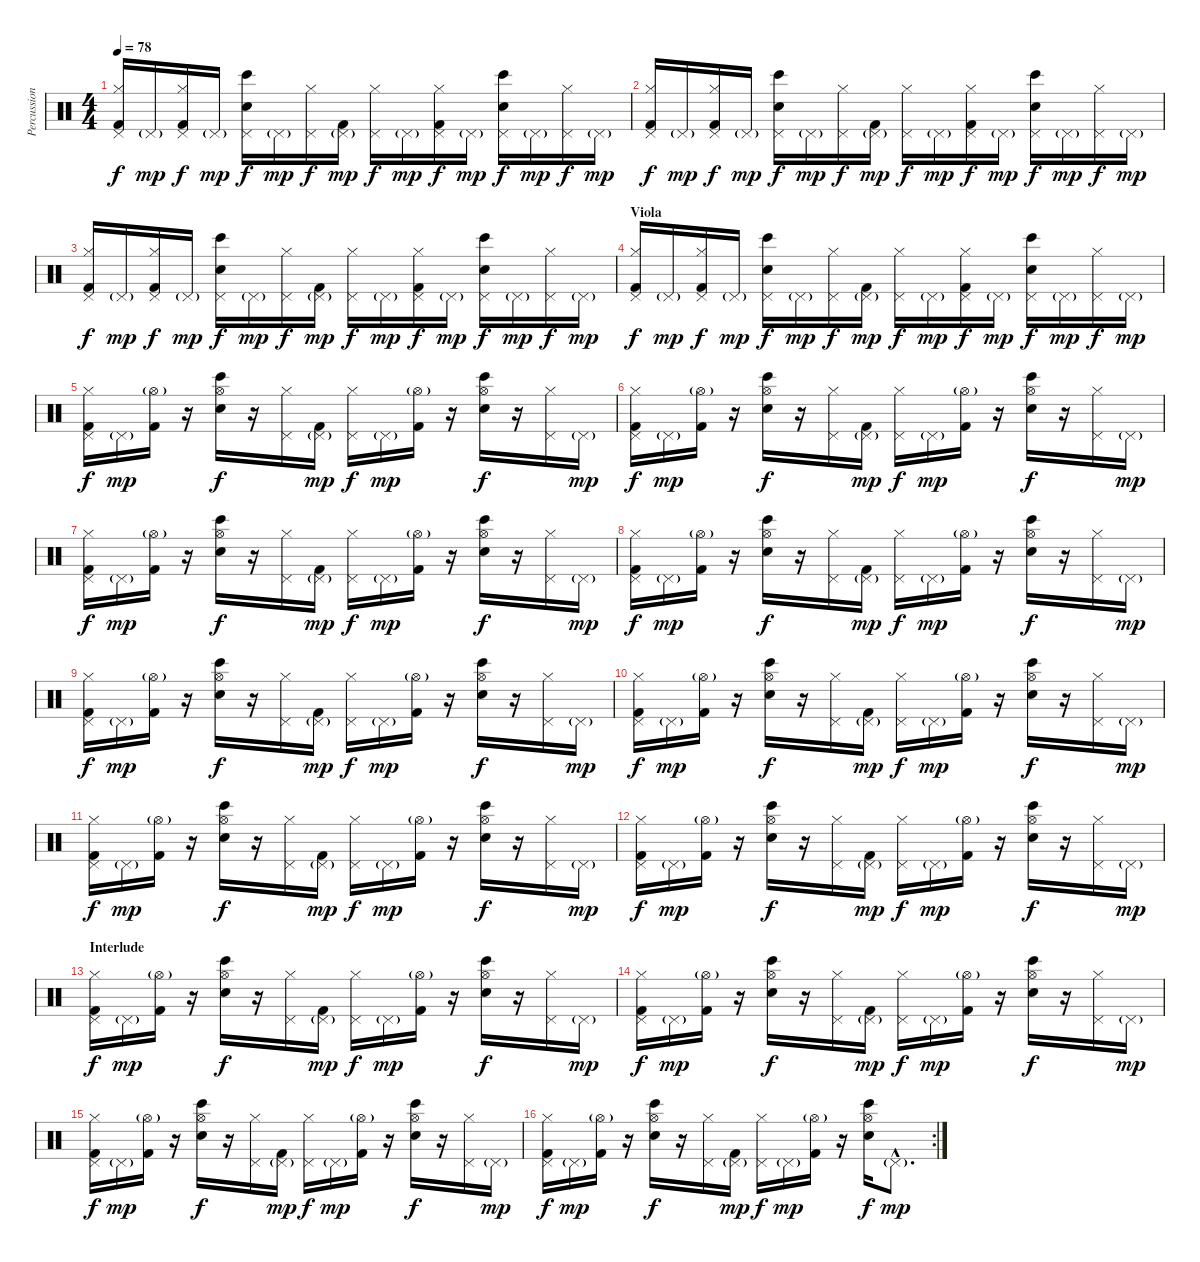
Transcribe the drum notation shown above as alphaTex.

\track ("Percussions" "Percussion") {instrument percussion}
\staff {score}
\articulation defaults
\ts (4 4)
\tempo 78
\clef neutral
\ks c
("Pedal Hi-Hat (hit)" "Hi-Hat (closed)" "Kick (hit) 2").16{dy f} "Pedal Hi-Hat (hit)"{g}.16{dy mp} ("Pedal Hi-Hat (hit)" "Hi-Hat (closed)" "Kick (hit) 2").16{dy f} "Pedal Hi-Hat (hit)"{g}.16{dy mp} ("Pedal Hi-Hat (hit)" "Bongo High (hit)" "Electric Snare (hit)").16{dy f} "Pedal Hi-Hat (hit)"{g}.16{dy mp} ("Pedal Hi-Hat (hit)" "Hi-Hat (closed)").16{dy f} ("Pedal Hi-Hat (hit)"{g} "Kick (hit) 2").16{dy mp} ("Pedal Hi-Hat (hit)" "Hi-Hat (closed)").16{dy f} "Pedal Hi-Hat (hit)"{g}.16{dy mp} ("Pedal Hi-Hat (hit)" "Hi-Hat (closed)" "Kick (hit) 2").16{dy f} "Pedal Hi-Hat (hit)"{g}.16{dy mp} ("Pedal Hi-Hat (hit)" "Bongo High (hit)" "Electric Snare (hit)").16{dy f} "Pedal Hi-Hat (hit)"{g}.16{dy mp} ("Pedal Hi-Hat (hit)" "Hi-Hat (closed)").16{dy f} "Pedal Hi-Hat (hit)"{g}.16{dy mp} |
("Pedal Hi-Hat (hit)" "Hi-Hat (closed)" "Kick (hit) 2").16{dy f} "Pedal Hi-Hat (hit)"{g}.16{dy mp} ("Pedal Hi-Hat (hit)" "Hi-Hat (closed)" "Kick (hit) 2").16{dy f} "Pedal Hi-Hat (hit)"{g}.16{dy mp} ("Pedal Hi-Hat (hit)" "Bongo High (hit)" "Electric Snare (hit)").16{dy f} "Pedal Hi-Hat (hit)"{g}.16{dy mp} ("Pedal Hi-Hat (hit)" "Hi-Hat (closed)").16{dy f} ("Pedal Hi-Hat (hit)"{g} "Kick (hit) 2").16{dy mp} ("Pedal Hi-Hat (hit)" "Hi-Hat (closed)").16{dy f} "Pedal Hi-Hat (hit)"{g}.16{dy mp} ("Pedal Hi-Hat (hit)" "Hi-Hat (closed)" "Kick (hit) 2").16{dy f} "Pedal Hi-Hat (hit)"{g}.16{dy mp} ("Pedal Hi-Hat (hit)" "Bongo High (hit)" "Electric Snare (hit)").16{dy f} "Pedal Hi-Hat (hit)"{g}.16{dy mp} ("Pedal Hi-Hat (hit)" "Hi-Hat (closed)").16{dy f} "Pedal Hi-Hat (hit)"{g}.16{dy mp} |
("Pedal Hi-Hat (hit)" "Hi-Hat (closed)" "Kick (hit) 2").16{dy f} "Pedal Hi-Hat (hit)"{g}.16{dy mp} ("Pedal Hi-Hat (hit)" "Hi-Hat (closed)" "Kick (hit) 2").16{dy f} "Pedal Hi-Hat (hit)"{g}.16{dy mp} ("Pedal Hi-Hat (hit)" "Bongo High (hit)" "Electric Snare (hit)").16{dy f} "Pedal Hi-Hat (hit)"{g}.16{dy mp} ("Pedal Hi-Hat (hit)" "Hi-Hat (closed)").16{dy f} ("Pedal Hi-Hat (hit)"{g} "Kick (hit) 2").16{dy mp} ("Pedal Hi-Hat (hit)" "Hi-Hat (closed)").16{dy f} "Pedal Hi-Hat (hit)"{g}.16{dy mp} ("Pedal Hi-Hat (hit)" "Hi-Hat (closed)" "Kick (hit) 2").16{dy f} "Pedal Hi-Hat (hit)"{g}.16{dy mp} ("Pedal Hi-Hat (hit)" "Bongo High (hit)" "Electric Snare (hit)").16{dy f} "Pedal Hi-Hat (hit)"{g}.16{dy mp} ("Pedal Hi-Hat (hit)" "Hi-Hat (closed)").16{dy f} "Pedal Hi-Hat (hit)"{g}.16{dy mp} |
\section ("" "Viola")
("Pedal Hi-Hat (hit)" "Hi-Hat (closed)" "Kick (hit) 2").16{dy f} "Pedal Hi-Hat (hit)"{g}.16{dy mp} ("Pedal Hi-Hat (hit)" "Hi-Hat (closed)" "Kick (hit) 2").16{dy f} "Pedal Hi-Hat (hit)"{g}.16{dy mp} ("Pedal Hi-Hat (hit)" "Bongo High (hit)" "Electric Snare (hit)").16{dy f} "Pedal Hi-Hat (hit)"{g}.16{dy mp} ("Pedal Hi-Hat (hit)" "Hi-Hat (closed)").16{dy f} ("Pedal Hi-Hat (hit)"{g} "Kick (hit) 2").16{dy mp} ("Pedal Hi-Hat (hit)" "Hi-Hat (closed)").16{dy f} "Pedal Hi-Hat (hit)"{g}.16{dy mp} ("Pedal Hi-Hat (hit)" "Hi-Hat (closed)" "Kick (hit) 2").16{dy f} "Pedal Hi-Hat (hit)"{g}.16{dy mp} ("Pedal Hi-Hat (hit)" "Bongo High (hit)" "Electric Snare (hit)").16{dy f} "Pedal Hi-Hat (hit)"{g}.16{dy mp} ("Pedal Hi-Hat (hit)" "Hi-Hat (closed)").16{dy f} "Pedal Hi-Hat (hit)"{g}.16{dy mp} |
("Pedal Hi-Hat (hit)" "Hi-Hat (closed)" "Kick (hit) 2").16{dy f} "Pedal Hi-Hat (hit)"{g}.16{dy mp} ("Hi-Hat (open)"{g} "Kick (hit) 2").16 r.16 ("Hi-Hat (open)" "Bongo High (hit)" "Electric Snare (hit)").16{dy f} r.16 ("Pedal Hi-Hat (hit)" "Hi-Hat (closed)").16 ("Pedal Hi-Hat (hit)"{g} "Kick (hit) 2").16{dy mp} ("Pedal Hi-Hat (hit)" "Hi-Hat (closed)").16{dy f} "Pedal Hi-Hat (hit)"{g}.16{dy mp} ("Hi-Hat (open)"{g} "Kick (hit) 2").16 r.16 ("Hi-Hat (open)" "Bongo High (hit)" "Electric Snare (hit)").16{dy f} r.16 ("Pedal Hi-Hat (hit)" "Hi-Hat (closed)").16 "Pedal Hi-Hat (hit)"{g}.16{dy mp} |
("Pedal Hi-Hat (hit)" "Hi-Hat (closed)" "Kick (hit) 2").16{dy f} "Pedal Hi-Hat (hit)"{g}.16{dy mp} ("Hi-Hat (open)"{g} "Kick (hit) 2").16 r.16 ("Hi-Hat (open)" "Bongo High (hit)" "Electric Snare (hit)").16{dy f} r.16 ("Pedal Hi-Hat (hit)" "Hi-Hat (closed)").16 ("Pedal Hi-Hat (hit)"{g} "Kick (hit) 2").16{dy mp} ("Pedal Hi-Hat (hit)" "Hi-Hat (closed)").16{dy f} "Pedal Hi-Hat (hit)"{g}.16{dy mp} ("Hi-Hat (open)"{g} "Kick (hit) 2").16 r.16 ("Hi-Hat (open)" "Bongo High (hit)" "Electric Snare (hit)").16{dy f} r.16 ("Pedal Hi-Hat (hit)" "Hi-Hat (closed)").16 "Pedal Hi-Hat (hit)"{g}.16{dy mp} |
("Pedal Hi-Hat (hit)" "Hi-Hat (closed)" "Kick (hit) 2").16{dy f} "Pedal Hi-Hat (hit)"{g}.16{dy mp} ("Hi-Hat (open)"{g} "Kick (hit) 2").16 r.16 ("Hi-Hat (open)" "Bongo High (hit)" "Electric Snare (hit)").16{dy f} r.16 ("Pedal Hi-Hat (hit)" "Hi-Hat (closed)").16 ("Pedal Hi-Hat (hit)"{g} "Kick (hit) 2").16{dy mp} ("Pedal Hi-Hat (hit)" "Hi-Hat (closed)").16{dy f} "Pedal Hi-Hat (hit)"{g}.16{dy mp} ("Hi-Hat (open)"{g} "Kick (hit) 2").16 r.16 ("Hi-Hat (open)" "Bongo High (hit)" "Electric Snare (hit)").16{dy f} r.16 ("Pedal Hi-Hat (hit)" "Hi-Hat (closed)").16 "Pedal Hi-Hat (hit)"{g}.16{dy mp} |
("Pedal Hi-Hat (hit)" "Hi-Hat (closed)" "Kick (hit) 2").16{dy f} "Pedal Hi-Hat (hit)"{g}.16{dy mp} ("Hi-Hat (open)"{g} "Kick (hit) 2").16 r.16 ("Hi-Hat (open)" "Bongo High (hit)" "Electric Snare (hit)").16{dy f} r.16 ("Pedal Hi-Hat (hit)" "Hi-Hat (closed)").16 ("Pedal Hi-Hat (hit)"{g} "Kick (hit) 2").16{dy mp} ("Pedal Hi-Hat (hit)" "Hi-Hat (closed)").16{dy f} "Pedal Hi-Hat (hit)"{g}.16{dy mp} ("Hi-Hat (open)"{g} "Kick (hit) 2").16 r.16 ("Hi-Hat (open)" "Bongo High (hit)" "Electric Snare (hit)").16{dy f} r.16 ("Pedal Hi-Hat (hit)" "Hi-Hat (closed)").16 "Pedal Hi-Hat (hit)"{g}.16{dy mp} |
("Pedal Hi-Hat (hit)" "Hi-Hat (closed)" "Kick (hit) 2").16{dy f} "Pedal Hi-Hat (hit)"{g}.16{dy mp} ("Hi-Hat (open)"{g} "Kick (hit) 2").16 r.16 ("Hi-Hat (open)" "Bongo High (hit)" "Electric Snare (hit)").16{dy f} r.16 ("Pedal Hi-Hat (hit)" "Hi-Hat (closed)").16 ("Pedal Hi-Hat (hit)"{g} "Kick (hit) 2").16{dy mp} ("Pedal Hi-Hat (hit)" "Hi-Hat (closed)").16{dy f} "Pedal Hi-Hat (hit)"{g}.16{dy mp} ("Hi-Hat (open)"{g} "Kick (hit) 2").16 r.16 ("Hi-Hat (open)" "Bongo High (hit)" "Electric Snare (hit)").16{dy f} r.16 ("Pedal Hi-Hat (hit)" "Hi-Hat (closed)").16 "Pedal Hi-Hat (hit)"{g}.16{dy mp} |
("Pedal Hi-Hat (hit)" "Hi-Hat (closed)" "Kick (hit) 2").16{dy f} "Pedal Hi-Hat (hit)"{g}.16{dy mp} ("Hi-Hat (open)"{g} "Kick (hit) 2").16 r.16 ("Hi-Hat (open)" "Bongo High (hit)" "Electric Snare (hit)").16{dy f} r.16 ("Pedal Hi-Hat (hit)" "Hi-Hat (closed)").16 ("Pedal Hi-Hat (hit)"{g} "Kick (hit) 2").16{dy mp} ("Pedal Hi-Hat (hit)" "Hi-Hat (closed)").16{dy f} "Pedal Hi-Hat (hit)"{g}.16{dy mp} ("Hi-Hat (open)"{g} "Kick (hit) 2").16 r.16 ("Hi-Hat (open)" "Bongo High (hit)" "Electric Snare (hit)").16{dy f} r.16 ("Pedal Hi-Hat (hit)" "Hi-Hat (closed)").16 "Pedal Hi-Hat (hit)"{g}.16{dy mp} |
("Pedal Hi-Hat (hit)" "Hi-Hat (closed)" "Kick (hit) 2").16{dy f} "Pedal Hi-Hat (hit)"{g}.16{dy mp} ("Hi-Hat (open)"{g} "Kick (hit) 2").16 r.16 ("Hi-Hat (open)" "Bongo High (hit)" "Electric Snare (hit)").16{dy f} r.16 ("Pedal Hi-Hat (hit)" "Hi-Hat (closed)").16 ("Pedal Hi-Hat (hit)"{g} "Kick (hit) 2").16{dy mp} ("Pedal Hi-Hat (hit)" "Hi-Hat (closed)").16{dy f} "Pedal Hi-Hat (hit)"{g}.16{dy mp} ("Hi-Hat (open)"{g} "Kick (hit) 2").16 r.16 ("Hi-Hat (open)" "Bongo High (hit)" "Electric Snare (hit)").16{dy f} r.16 ("Pedal Hi-Hat (hit)" "Hi-Hat (closed)").16 "Pedal Hi-Hat (hit)"{g}.16{dy mp} |
("Pedal Hi-Hat (hit)" "Hi-Hat (closed)" "Kick (hit) 2").16{dy f} "Pedal Hi-Hat (hit)"{g}.16{dy mp} ("Hi-Hat (open)"{g} "Kick (hit) 2").16 r.16 ("Hi-Hat (open)" "Bongo High (hit)" "Electric Snare (hit)").16{dy f} r.16 ("Pedal Hi-Hat (hit)" "Hi-Hat (closed)").16 ("Pedal Hi-Hat (hit)"{g} "Kick (hit) 2").16{dy mp} ("Pedal Hi-Hat (hit)" "Hi-Hat (closed)").16{dy f} "Pedal Hi-Hat (hit)"{g}.16{dy mp} ("Hi-Hat (open)"{g} "Kick (hit) 2").16 r.16 ("Hi-Hat (open)" "Bongo High (hit)" "Electric Snare (hit)").16{dy f} r.16 ("Pedal Hi-Hat (hit)" "Hi-Hat (closed)").16 "Pedal Hi-Hat (hit)"{g}.16{dy mp} |
\section ("" "Interlude")
("Pedal Hi-Hat (hit)" "Hi-Hat (closed)" "Kick (hit) 2").16{dy f} "Pedal Hi-Hat (hit)"{g}.16{dy mp} ("Hi-Hat (open)"{g} "Kick (hit) 2").16 r.16 ("Hi-Hat (open)" "Bongo High (hit)" "Electric Snare (hit)").16{dy f} r.16 ("Pedal Hi-Hat (hit)" "Hi-Hat (closed)").16 ("Pedal Hi-Hat (hit)"{g} "Kick (hit) 2").16{dy mp} ("Pedal Hi-Hat (hit)" "Hi-Hat (closed)").16{dy f} "Pedal Hi-Hat (hit)"{g}.16{dy mp} ("Hi-Hat (open)"{g} "Kick (hit) 2").16 r.16 ("Hi-Hat (open)" "Bongo High (hit)" "Electric Snare (hit)").16{dy f} r.16 ("Pedal Hi-Hat (hit)" "Hi-Hat (closed)").16 "Pedal Hi-Hat (hit)"{g}.16{dy mp} |
("Pedal Hi-Hat (hit)" "Hi-Hat (closed)" "Kick (hit) 2").16{dy f} "Pedal Hi-Hat (hit)"{g}.16{dy mp} ("Hi-Hat (open)"{g} "Kick (hit) 2").16 r.16 ("Hi-Hat (open)" "Bongo High (hit)" "Electric Snare (hit)").16{dy f} r.16 ("Pedal Hi-Hat (hit)" "Hi-Hat (closed)").16 ("Pedal Hi-Hat (hit)"{g} "Kick (hit) 2").16{dy mp} ("Pedal Hi-Hat (hit)" "Hi-Hat (closed)").16{dy f} "Pedal Hi-Hat (hit)"{g}.16{dy mp} ("Hi-Hat (open)"{g} "Kick (hit) 2").16 r.16 ("Hi-Hat (open)" "Bongo High (hit)" "Electric Snare (hit)").16{dy f} r.16 ("Pedal Hi-Hat (hit)" "Hi-Hat (closed)").16 "Pedal Hi-Hat (hit)"{g}.16{dy mp} |
("Pedal Hi-Hat (hit)" "Hi-Hat (closed)" "Kick (hit) 2").16{dy f} "Pedal Hi-Hat (hit)"{g}.16{dy mp} ("Hi-Hat (open)"{g} "Kick (hit) 2").16 r.16 ("Hi-Hat (open)" "Bongo High (hit)" "Electric Snare (hit)").16{dy f} r.16 ("Pedal Hi-Hat (hit)" "Hi-Hat (closed)").16 ("Pedal Hi-Hat (hit)"{g} "Kick (hit) 2").16{dy mp} ("Pedal Hi-Hat (hit)" "Hi-Hat (closed)").16{dy f} "Pedal Hi-Hat (hit)"{g}.16{dy mp} ("Hi-Hat (open)"{g} "Kick (hit) 2").16 r.16 ("Hi-Hat (open)" "Bongo High (hit)" "Electric Snare (hit)").16{dy f} r.16 ("Pedal Hi-Hat (hit)" "Hi-Hat (closed)").16 "Pedal Hi-Hat (hit)"{g}.16{dy mp} |
\rc 2
("Pedal Hi-Hat (hit)" "Hi-Hat (closed)" "Kick (hit) 2").16{dy f} "Pedal Hi-Hat (hit)"{g}.16{dy mp} ("Hi-Hat (open)"{g} "Kick (hit) 2").16 r.16 ("Hi-Hat (open)" "Bongo High (hit)" "Electric Snare (hit)").16{dy f} r.16 ("Pedal Hi-Hat (hit)" "Hi-Hat (closed)").16 ("Pedal Hi-Hat (hit)"{g} "Kick (hit) 2").16{dy mp} ("Pedal Hi-Hat (hit)" "Hi-Hat (closed)").16{dy f} "Pedal Hi-Hat (hit)"{g}.16{dy mp} ("Hi-Hat (open)"{g} "Kick (hit) 2").16 r.16 ("Hi-Hat (open)" "Bongo High (hit)" "Electric Snare (hit)").16{dy f} "Pedal Hi-Hat (hit)"{g hac}.8{d dy mp}
